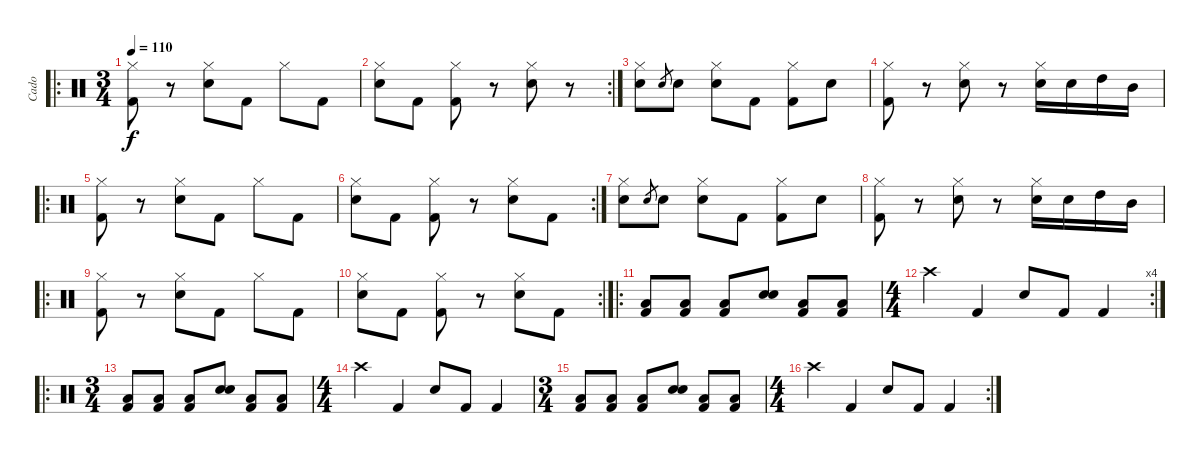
\track ("Cado" "Cado") {instrument percussion}
\staff {score}
\articulation defaults
\ro
\ts (3 4)
\tempo 110
\clef neutral
\ks c
("Hi-Hat (closed)" "Kick (hit) 2").8{dy f} r.8 ("Hi-Hat (closed)" "Snare (hit) 2").8 "Kick (hit) 2".8 "Hi-Hat (closed)".8 "Kick (hit) 2".8 |
\rc 2
("Hi-Hat (closed)" "Snare (hit) 2").8 "Kick (hit) 2".8 ("Hi-Hat (closed)" "Kick (hit) 2").8 r.8 ("Hi-Hat (closed)" "Snare (hit) 2").8 r.8 |
("Hi-Hat (closed)" "Snare (hit) 2").8 "Snare (hit) 2".8{gr} "Snare (hit) 2".8 ("Hi-Hat (closed)" "Snare (hit) 2").8 "Kick (hit) 2".8 ("Hi-Hat (closed)" "Kick (hit) 2").8 "Snare (hit) 2".8 |
("Hi-Hat (closed)" "Kick (hit) 2").8 r.8 ("Hi-Hat (closed)" "Snare (hit) 2").8 r.8 ("Hi-Hat (closed)" "Snare (hit) 2").16 "Snare (hit) 2".16 "High Tom (hit)".16 "Mid Tom (hit)".16 |
\ro
("Hi-Hat (closed)" "Kick (hit) 2").8 r.8 ("Hi-Hat (closed)" "Snare (hit) 2").8 "Kick (hit) 2".8 "Hi-Hat (closed)".8 "Kick (hit) 2".8 |
\rc 2
("Hi-Hat (closed)" "Snare (hit) 2").8 "Kick (hit) 2".8 ("Hi-Hat (closed)" "Kick (hit) 2").8 r.8 ("Hi-Hat (closed)" "Snare (hit) 2").8 "Kick (hit) 2".8 |
("Hi-Hat (closed)" "Snare (hit) 2").8 "Snare (hit) 2".8{gr} "Snare (hit) 2".8 ("Hi-Hat (closed)" "Snare (hit) 2").8 "Kick (hit) 2".8 ("Hi-Hat (closed)" "Kick (hit) 2").8 "Snare (hit) 2".8 |
("Hi-Hat (closed)" "Kick (hit) 2").8 r.8 ("Hi-Hat (closed)" "Snare (hit) 2").8 r.8 ("Hi-Hat (closed)" "Snare (hit) 2").16 "Snare (hit) 2".16 "High Tom (hit)".16 "Mid Tom (hit)".16 |
\ro
("Hi-Hat (closed)" "Kick (hit) 2").8 r.8 ("Hi-Hat (closed)" "Snare (hit) 2").8 "Kick (hit) 2".8 "Hi-Hat (closed)".8 "Kick (hit) 2".8 |
\rc 2
("Hi-Hat (closed)" "Snare (hit) 2").8 "Kick (hit) 2".8 ("Hi-Hat (closed)" "Kick (hit) 2").8 r.8 ("Hi-Hat (closed)" "Snare (hit) 2").8 "Kick (hit) 2".8 |
\ro
("Kick (hit) 2" "Low Floor Tom (hit)").8 ("Kick (hit) 2" "Low Floor Tom (hit)").8 ("Kick (hit) 2" "Low Floor Tom (hit)").8 ("Snare (hit) 2" "Electric Snare (hit)").8 ("Low Floor Tom (hit)" "Kick (hit) 2").8 ("Low Floor Tom (hit)" "Kick (hit) 2").8 |
\rc 4
\ts (4 4)
"Crash high (hit)".4 "Kick (hit) 2".4 "Snare (hit) 2".8 "Kick (hit) 2".8 "Kick (hit) 2".4 |
\ro
\ts (3 4)
("Kick (hit) 2" "Low Floor Tom (hit)").8 ("Kick (hit) 2" "Low Floor Tom (hit)").8 ("Kick (hit) 2" "Low Floor Tom (hit)").8 ("Snare (hit) 2" "Electric Snare (hit)").8 ("Low Floor Tom (hit)" "Kick (hit) 2").8 ("Low Floor Tom (hit)" "Kick (hit) 2").8 |
\ts (4 4)
"Crash high (hit)".4 "Kick (hit) 2".4 "Snare (hit) 2".8 "Kick (hit) 2".8 "Kick (hit) 2".4 |
\ts (3 4)
("Kick (hit) 2" "Low Floor Tom (hit)").8 ("Kick (hit) 2" "Low Floor Tom (hit)").8 ("Kick (hit) 2" "Low Floor Tom (hit)").8 ("Snare (hit) 2" "Electric Snare (hit)").8 ("Low Floor Tom (hit)" "Kick (hit) 2").8 ("Low Floor Tom (hit)" "Kick (hit) 2").8 |
\rc 2
\ts (4 4)
"Crash high (hit)".4 "Kick (hit) 2".4 "Snare (hit) 2".8 "Kick (hit) 2".8 "Kick (hit) 2".4
